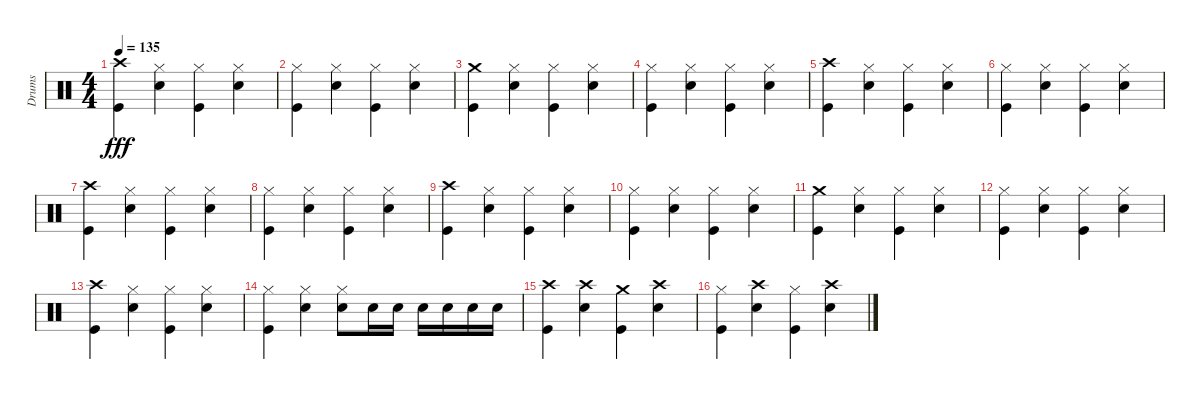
\track ("Drums" "Drums") {instrument percussion}
\staff {score}
\articulation defaults
\ts (4 4)
\tempo 135
\clef neutral
\ks c
("Kick (hit)" "Crash high (hit)").4{dy fff} ("Snare (hit) 2" "Hi-Hat (closed)").4 ("Kick (hit)" "Hi-Hat (closed)").4 ("Snare (hit) 2" "Hi-Hat (closed)").4 |
("Kick (hit)" "Hi-Hat (closed)").4 ("Snare (hit) 2" "Hi-Hat (closed)").4 ("Kick (hit)" "Hi-Hat (closed)").4 ("Snare (hit) 2" "Hi-Hat (closed)").4 |
("Kick (hit)" "Crash medium (hit)").4 ("Hi-Hat (closed)" "Snare (hit) 2").4 ("Hi-Hat (closed)" "Kick (hit)").4 ("Hi-Hat (closed)" "Snare (hit) 2").4 |
("Kick (hit)" "Hi-Hat (closed)").4 ("Snare (hit) 2" "Hi-Hat (closed)").4 ("Kick (hit)" "Hi-Hat (closed)").4 ("Snare (hit) 2" "Hi-Hat (closed)").4 |
("Kick (hit)" "Crash high (hit)").4 ("Hi-Hat (closed)" "Snare (hit) 2").4 ("Hi-Hat (closed)" "Kick (hit)").4 ("Hi-Hat (closed)" "Snare (hit) 2").4 |
("Hi-Hat (closed)" "Kick (hit)").4 ("Hi-Hat (closed)" "Snare (hit) 2").4 ("Hi-Hat (closed)" "Kick (hit)").4 ("Hi-Hat (closed)" "Snare (hit) 2").4 |
("Crash high (hit)" "Kick (hit)").4 ("Snare (hit) 2" "Hi-Hat (closed)").4 ("Kick (hit)" "Hi-Hat (closed)").4 ("Snare (hit) 2" "Hi-Hat (closed)").4 |
("Hi-Hat (closed)" "Kick (hit)").4 ("Snare (hit) 2" "Hi-Hat (closed)").4 ("Kick (hit)" "Hi-Hat (closed)").4 ("Snare (hit) 2" "Hi-Hat (closed)").4 |
("Kick (hit)" "Crash high (hit)").4 ("Snare (hit) 2" "Hi-Hat (closed)").4 ("Kick (hit)" "Hi-Hat (closed)").4 ("Snare (hit) 2" "Hi-Hat (closed)").4 |
("Kick (hit)" "Hi-Hat (closed)").4 ("Snare (hit) 2" "Hi-Hat (closed)").4 ("Kick (hit)" "Hi-Hat (closed)").4 ("Snare (hit) 2" "Hi-Hat (closed)").4 |
("Kick (hit)" "Crash medium (hit)").4 ("Hi-Hat (closed)" "Snare (hit) 2").4 ("Hi-Hat (closed)" "Kick (hit)").4 ("Hi-Hat (closed)" "Snare (hit) 2").4 |
("Kick (hit)" "Hi-Hat (closed)").4 ("Snare (hit) 2" "Hi-Hat (closed)").4 ("Kick (hit)" "Hi-Hat (closed)").4 ("Snare (hit) 2" "Hi-Hat (closed)").4 |
("Kick (hit)" "Crash high (hit)").4 ("Hi-Hat (closed)" "Snare (hit) 2").4 ("Hi-Hat (closed)" "Kick (hit)").4 ("Hi-Hat (closed)" "Snare (hit) 2").4 |
("Kick (hit)" "Hi-Hat (closed)").4 ("Hi-Hat (closed)" "Snare (hit) 2").4 ("Snare (hit) 2" "Hi-Hat (closed)").8 "Snare (hit) 2".16 "Snare (hit) 2".16 "Snare (hit) 2".16 "Snare (hit) 2".16 "Snare (hit) 2".16 "Snare (hit) 2".16 |
("Kick (hit)" "Crash high (hit)").4 ("Crash high (hit)" "Snare (hit) 2").4 ("Kick (hit)" "Crash medium (hit)").4 ("Crash high (hit)" "Snare (hit) 2").4 |
("Kick (hit)" "Hi-Hat (closed)").4 ("Crash high (hit)" "Snare (hit) 2").4 ("Kick (hit)" "Hi-Hat (closed)").4 ("Snare (hit) 2" "Crash high (hit)").4
